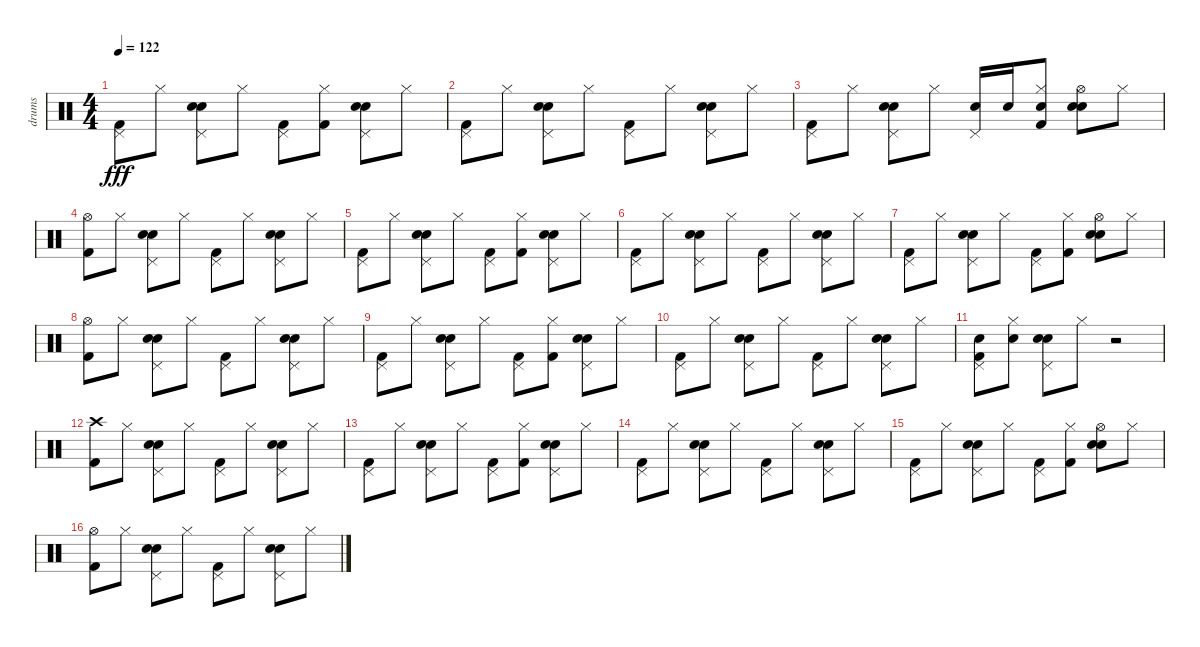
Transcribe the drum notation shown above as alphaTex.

\track ("drums" "drums") {instrument percussion}
\staff {score}
\articulation defaults
\ts (4 4)
\tempo 122
\clef neutral
\ks c
("Pedal Hi-Hat (hit)" "Kick (hit) 2").8{dy fff} "Hi-Hat (closed)".8 ("Hand Clap (hit)" "Pedal Hi-Hat (hit)" "Snare (hit) 2").8 "Hi-Hat (closed)".8 ("Pedal Hi-Hat (hit)" "Kick (hit) 2").8 ("Hi-Hat (closed)" "Kick (hit) 2").8 ("Hand Clap (hit)" "Pedal Hi-Hat (hit)" "Snare (hit) 2").8 "Hi-Hat (closed)".8 |
("Pedal Hi-Hat (hit)" "Kick (hit) 2").8 "Hi-Hat (closed)".8 ("Hand Clap (hit)" "Pedal Hi-Hat (hit)" "Snare (hit) 2").8 "Hi-Hat (closed)".8 ("Pedal Hi-Hat (hit)" "Kick (hit) 2").8 "Hi-Hat (closed)".8 ("Hand Clap (hit)" "Pedal Hi-Hat (hit)" "Snare (hit) 2").8 "Hi-Hat (closed)".8 |
("Kick (hit) 2" "Pedal Hi-Hat (hit)").8 "Hi-Hat (closed)".8 ("Hand Clap (hit)" "Pedal Hi-Hat (hit)" "Snare (hit) 2").8 "Hi-Hat (closed)".8 ("Snare (hit) 2" "Pedal Hi-Hat (hit)").16 "Snare (hit) 2".16 ("Kick (hit) 2" "Snare (hit) 2" "Hi-Hat (closed)").8 ("Hand Clap (hit)" "Hi-Hat (open)" "Snare (hit) 2").8 "Hi-Hat (closed)".8 |
("Hi-Hat (open)" "Kick (hit) 2").8 "Hi-Hat (closed)".8 ("Hand Clap (hit)" "Pedal Hi-Hat (hit)" "Snare (hit) 2").8 "Hi-Hat (closed)".8 ("Pedal Hi-Hat (hit)" "Kick (hit) 2").8 "Hi-Hat (closed)".8 ("Hand Clap (hit)" "Pedal Hi-Hat (hit)" "Snare (hit) 2").8 "Hi-Hat (closed)".8 |
("Pedal Hi-Hat (hit)" "Kick (hit) 2").8 "Hi-Hat (closed)".8 ("Hand Clap (hit)" "Pedal Hi-Hat (hit)" "Snare (hit) 2").8 "Hi-Hat (closed)".8 ("Pedal Hi-Hat (hit)" "Kick (hit) 2").8 ("Hi-Hat (closed)" "Kick (hit) 2").8 ("Hand Clap (hit)" "Pedal Hi-Hat (hit)" "Snare (hit) 2").8 "Hi-Hat (closed)".8 |
("Pedal Hi-Hat (hit)" "Kick (hit) 2").8 "Hi-Hat (closed)".8 ("Hand Clap (hit)" "Pedal Hi-Hat (hit)" "Snare (hit) 2").8 "Hi-Hat (closed)".8 ("Pedal Hi-Hat (hit)" "Kick (hit) 2").8 "Hi-Hat (closed)".8 ("Hand Clap (hit)" "Pedal Hi-Hat (hit)" "Snare (hit) 2").8 "Hi-Hat (closed)".8 |
("Pedal Hi-Hat (hit)" "Kick (hit) 2").8 "Hi-Hat (closed)".8 ("Hand Clap (hit)" "Pedal Hi-Hat (hit)" "Snare (hit) 2").8 "Hi-Hat (closed)".8 ("Kick (hit) 2" "Pedal Hi-Hat (hit)").8 ("Kick (hit) 2" "Hi-Hat (closed)").8 ("Hand Clap (hit)" "Hi-Hat (open)" "Snare (hit) 2").8 "Hi-Hat (closed)".8 |
("Hi-Hat (open)" "Kick (hit) 2").8 "Hi-Hat (closed)".8 ("Hand Clap (hit)" "Pedal Hi-Hat (hit)" "Snare (hit) 2").8 "Hi-Hat (closed)".8 ("Pedal Hi-Hat (hit)" "Kick (hit) 2").8 "Hi-Hat (closed)".8 ("Hand Clap (hit)" "Pedal Hi-Hat (hit)" "Snare (hit) 2").8 "Hi-Hat (closed)".8 |
("Pedal Hi-Hat (hit)" "Kick (hit) 2").8 "Hi-Hat (closed)".8 ("Hand Clap (hit)" "Pedal Hi-Hat (hit)" "Snare (hit) 2").8 "Hi-Hat (closed)".8 ("Pedal Hi-Hat (hit)" "Kick (hit) 2").8 ("Hi-Hat (closed)" "Kick (hit) 2").8 ("Hand Clap (hit)" "Pedal Hi-Hat (hit)" "Snare (hit) 2").8 "Hi-Hat (closed)".8 |
("Pedal Hi-Hat (hit)" "Kick (hit) 2").8 "Hi-Hat (closed)".8 ("Hand Clap (hit)" "Pedal Hi-Hat (hit)" "Snare (hit) 2").8 "Hi-Hat (closed)".8 ("Pedal Hi-Hat (hit)" "Kick (hit) 2").8 "Hi-Hat (closed)".8 ("Hand Clap (hit)" "Pedal Hi-Hat (hit)" "Snare (hit) 2").8 "Hi-Hat (closed)".8 |
("Snare (hit) 2" "Kick (hit) 2" "Pedal Hi-Hat (hit)").8 ("Snare (hit) 2" "Hi-Hat (closed)").8 ("Hand Clap (hit)" "Pedal Hi-Hat (hit)" "Snare (hit) 2").8 "Hi-Hat (closed)".8 r.2 |
("Crash high (hit)" "Kick (hit) 2").8 "Hi-Hat (closed)".8 ("Hand Clap (hit)" "Pedal Hi-Hat (hit)" "Snare (hit) 2").8 "Hi-Hat (closed)".8 ("Pedal Hi-Hat (hit)" "Kick (hit) 2").8 "Hi-Hat (closed)".8 ("Hand Clap (hit)" "Pedal Hi-Hat (hit)" "Snare (hit) 2").8 "Hi-Hat (closed)".8 |
("Pedal Hi-Hat (hit)" "Kick (hit) 2").8 "Hi-Hat (closed)".8 ("Hand Clap (hit)" "Pedal Hi-Hat (hit)" "Snare (hit) 2").8 "Hi-Hat (closed)".8 ("Pedal Hi-Hat (hit)" "Kick (hit) 2").8 ("Hi-Hat (closed)" "Kick (hit) 2").8 ("Hand Clap (hit)" "Pedal Hi-Hat (hit)" "Snare (hit) 2").8 "Hi-Hat (closed)".8 |
("Pedal Hi-Hat (hit)" "Kick (hit) 2").8 "Hi-Hat (closed)".8 ("Hand Clap (hit)" "Pedal Hi-Hat (hit)" "Snare (hit) 2").8 "Hi-Hat (closed)".8 ("Pedal Hi-Hat (hit)" "Kick (hit) 2").8 "Hi-Hat (closed)".8 ("Hand Clap (hit)" "Pedal Hi-Hat (hit)" "Snare (hit) 2").8 "Hi-Hat (closed)".8 |
("Pedal Hi-Hat (hit)" "Kick (hit) 2").8 "Hi-Hat (closed)".8 ("Hand Clap (hit)" "Pedal Hi-Hat (hit)" "Snare (hit) 2").8 "Hi-Hat (closed)".8 ("Kick (hit) 2" "Pedal Hi-Hat (hit)").8 ("Kick (hit) 2" "Hi-Hat (closed)").8 ("Hand Clap (hit)" "Hi-Hat (open)" "Snare (hit) 2").8 "Hi-Hat (closed)".8 |
("Hi-Hat (open)" "Kick (hit) 2").8 "Hi-Hat (closed)".8 ("Hand Clap (hit)" "Pedal Hi-Hat (hit)" "Snare (hit) 2").8 "Hi-Hat (closed)".8 ("Pedal Hi-Hat (hit)" "Kick (hit) 2").8 "Hi-Hat (closed)".8 ("Hand Clap (hit)" "Pedal Hi-Hat (hit)" "Snare (hit) 2").8 "Hi-Hat (closed)".8
